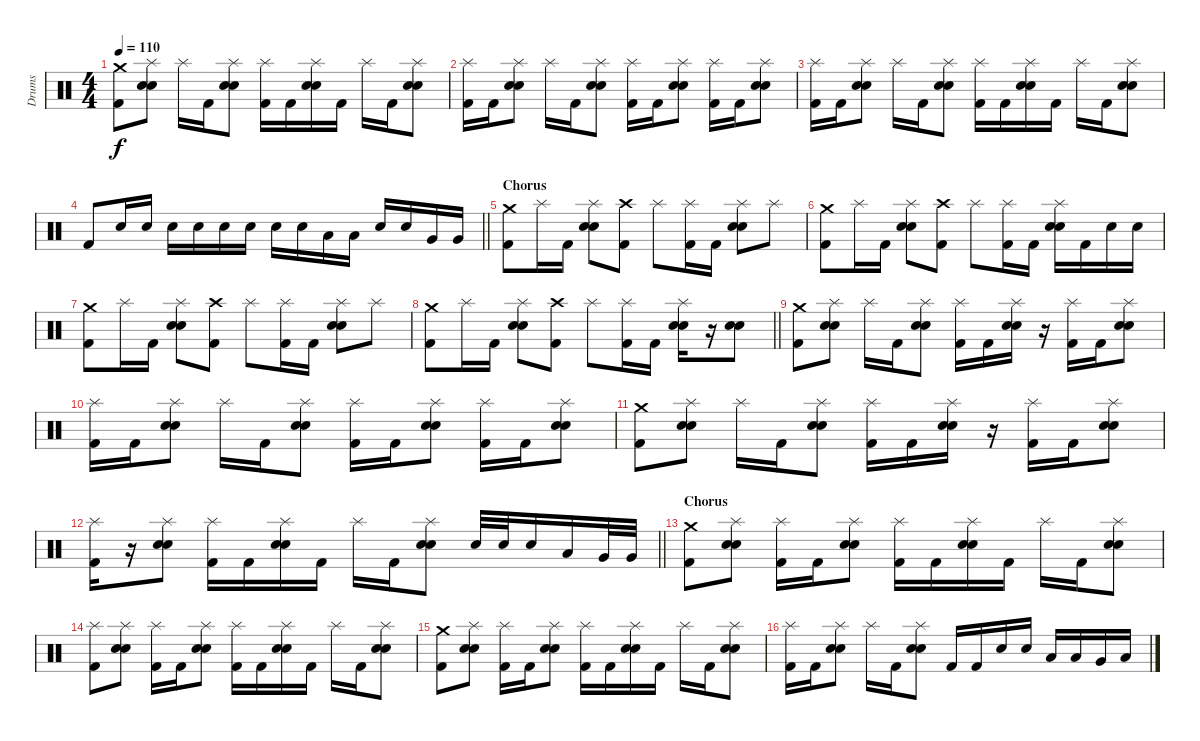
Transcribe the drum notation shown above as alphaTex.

\track ("Drums" "Drums") {instrument percussion}
\staff {score}
\articulation defaults
\ts (4 4)
\tempo 110
\clef neutral
\ks c
("Crash medium (hit)" "Kick (hit) 2").8{dy f} ("Splash (hit)" "Electric Snare (hit)" "Snare (hit) 2").8 "Splash (hit)".16 "Kick (hit) 2".16 ("Splash (hit)" "Electric Snare (hit)" "Snare (hit) 2").8 ("Splash (hit)" "Kick (hit) 2").16 "Kick (hit) 2".16 ("Splash (hit)" "Electric Snare (hit)" "Snare (hit) 2").16 "Kick (hit) 2".16 "Splash (hit)".16 "Kick (hit) 2".16 ("Splash (hit)" "Electric Snare (hit)" "Snare (hit) 2").8 |
("Splash (hit)" "Kick (hit) 2").16 "Kick (hit) 2".16 ("Splash (hit)" "Electric Snare (hit)" "Snare (hit) 2").8 "Splash (hit)".16 "Kick (hit) 2".16 ("Splash (hit)" "Electric Snare (hit)" "Snare (hit) 2").8 ("Splash (hit)" "Kick (hit) 2").16 "Kick (hit) 2".16 ("Splash (hit)" "Electric Snare (hit)" "Snare (hit) 2").8 ("Splash (hit)" "Kick (hit) 2").16 "Kick (hit) 2".16 ("Splash (hit)" "Electric Snare (hit)" "Snare (hit) 2").8 |
("Splash (hit)" "Kick (hit) 2").16 "Kick (hit) 2".16 ("Splash (hit)" "Electric Snare (hit)" "Snare (hit) 2").8 "Splash (hit)".16 "Kick (hit) 2".16 ("Splash (hit)" "Electric Snare (hit)" "Snare (hit) 2").8 ("Splash (hit)" "Kick (hit) 2").16 "Kick (hit) 2".16 ("Splash (hit)" "Electric Snare (hit)" "Snare (hit) 2").16 "Kick (hit) 2".16 "Splash (hit)".16 "Kick (hit) 2".16 ("Splash (hit)" "Electric Snare (hit)" "Snare (hit) 2").8 |
\barLineRight lightlight "Kick (hit) 2".8 "Electric Snare (hit)".16 "Electric Snare (hit)".16 "Electric Snare (hit)".16 "Electric Snare (hit)".16 "Electric Snare (hit)".16 "Electric Snare (hit)".16 "Electric Snare (hit)".16 "Electric Snare (hit)".16 "Low Tom (hit)".16 "Low Tom (hit)".16 "Electric Snare (hit)".16 "Electric Snare (hit)".16 "Very Low Tom (hit)".16 "Very Low Tom (hit)".16
|
\section ("" "Chorus")
("Crash medium (hit)" "Kick (hit) 2").8 "Splash (hit)".16 "Kick (hit) 2".16 ("Splash (hit)" "Electric Snare (hit)" "Snare (hit) 2").8 ("Crash high (hit)" "Kick (hit) 2").8 "Splash (hit)".8 ("Splash (hit)" "Kick (hit) 2").16 "Kick (hit) 2".16 ("Splash (hit)" "Electric Snare (hit)" "Snare (hit) 2").8 "Splash (hit)".8 |
("Crash medium (hit)" "Kick (hit) 2").8 "Splash (hit)".16 "Kick (hit) 2".16 ("Splash (hit)" "Electric Snare (hit)" "Snare (hit) 2").8 ("Crash high (hit)" "Kick (hit) 2").8 "Splash (hit)".8 ("Splash (hit)" "Kick (hit) 2").16 "Kick (hit) 2".16 ("Splash (hit)" "Electric Snare (hit)" "Snare (hit) 2").16 "Kick (hit) 2".16 "Electric Snare (hit)".16 "Electric Snare (hit)".16 |
("Crash medium (hit)" "Kick (hit) 2").8 "Splash (hit)".16 "Kick (hit) 2".16 ("Splash (hit)" "Electric Snare (hit)" "Snare (hit) 2").8 ("Crash high (hit)" "Kick (hit) 2").8 "Splash (hit)".8 ("Splash (hit)" "Kick (hit) 2").16 "Kick (hit) 2".16 ("Splash (hit)" "Electric Snare (hit)" "Snare (hit) 2").8 "Splash (hit)".8 |
\barLineRight lightlight
("Crash medium (hit)" "Kick (hit) 2").8 "Splash (hit)".16 "Kick (hit) 2".16 ("Splash (hit)" "Electric Snare (hit)" "Snare (hit) 2").8 ("Crash high (hit)" "Kick (hit) 2").8 "Splash (hit)".8 ("Splash (hit)" "Kick (hit) 2").16 "Kick (hit) 2".16 ("Splash (hit)" "Electric Snare (hit)" "Snare (hit) 2").16 r.16 ("Electric Snare (hit)" "Snare (hit) 2").8 |
("Crash medium (hit)" "Kick (hit) 2").8 ("Splash (hit)" "Electric Snare (hit)" "Snare (hit) 2").8 "Splash (hit)".16 "Kick (hit) 2".16 ("Splash (hit)" "Electric Snare (hit)" "Snare (hit) 2").8 ("Splash (hit)" "Kick (hit) 2").16 "Kick (hit) 2".16 ("Splash (hit)" "Electric Snare (hit)" "Snare (hit) 2").16 r.16 ("Splash (hit)" "Kick (hit) 2").16 "Kick (hit) 2".16 ("Splash (hit)" "Electric Snare (hit)" "Snare (hit) 2").8 |
("Splash (hit)" "Kick (hit) 2").16 "Kick (hit) 2".16 ("Splash (hit)" "Electric Snare (hit)" "Snare (hit) 2").8 "Splash (hit)".16 "Kick (hit) 2".16 ("Splash (hit)" "Electric Snare (hit)" "Snare (hit) 2").8 ("Splash (hit)" "Kick (hit) 2").16 "Kick (hit) 2".16 ("Splash (hit)" "Electric Snare (hit)" "Snare (hit) 2").8 ("Splash (hit)" "Kick (hit) 2").16 "Kick (hit) 2".16 ("Splash (hit)" "Electric Snare (hit)" "Snare (hit) 2").8 |
("Crash medium (hit)" "Kick (hit) 2").8 ("Splash (hit)" "Electric Snare (hit)" "Snare (hit) 2").8 "Splash (hit)".16 "Kick (hit) 2".16 ("Splash (hit)" "Electric Snare (hit)" "Snare (hit) 2").8 ("Splash (hit)" "Kick (hit) 2").16 "Kick (hit) 2".16 ("Splash (hit)" "Electric Snare (hit)" "Snare (hit) 2").16 r.16 ("Splash (hit)" "Kick (hit) 2").16 "Kick (hit) 2".16 ("Splash (hit)" "Electric Snare (hit)" "Snare (hit) 2").8 |
\barLineRight lightlight
("Splash (hit)" "Kick (hit) 2").16 r.16 ("Splash (hit)" "Electric Snare (hit)" "Snare (hit) 2").8 ("Splash (hit)" "Kick (hit) 2").16 "Kick (hit) 2".16 ("Splash (hit)" "Electric Snare (hit)" "Snare (hit) 2").16 "Kick (hit) 2".16 "Splash (hit)".16 "Kick (hit) 2".16 ("Splash (hit)" "Electric Snare (hit)" "Snare (hit) 2").8 "Electric Snare (hit)".32 "Electric Snare (hit)".32 "Electric Snare (hit)".16 "Low Tom (hit)".16 "Very Low Tom (hit)".32 "Very Low Tom (hit)".32 |
\section ("" "Chorus")
("Crash medium (hit)" "Kick (hit) 2").8 ("Splash (hit)" "Electric Snare (hit)" "Snare (hit) 2").8 ("Splash (hit)" "Kick (hit) 2").16 "Kick (hit) 2".16 ("Splash (hit)" "Electric Snare (hit)" "Snare (hit) 2").8 ("Splash (hit)" "Kick (hit) 2").16 "Kick (hit) 2".16 ("Splash (hit)" "Electric Snare (hit)" "Snare (hit) 2").16 "Kick (hit) 2".16 "Splash (hit)".16 "Kick (hit) 2".16 ("Splash (hit)" "Electric Snare (hit)" "Snare (hit) 2").8 |
("Splash (hit)" "Kick (hit) 2").8 ("Splash (hit)" "Electric Snare (hit)" "Snare (hit) 2").8 ("Splash (hit)" "Kick (hit) 2").16 "Kick (hit) 2".16 ("Splash (hit)" "Electric Snare (hit)" "Snare (hit) 2").8 ("Splash (hit)" "Kick (hit) 2").16 "Kick (hit) 2".16 ("Splash (hit)" "Electric Snare (hit)" "Snare (hit) 2").16 "Kick (hit) 2".16 "Splash (hit)".16 "Kick (hit) 2".16 ("Splash (hit)" "Electric Snare (hit)" "Snare (hit) 2").8 |
("Crash medium (hit)" "Kick (hit) 2").8 ("Splash (hit)" "Electric Snare (hit)" "Snare (hit) 2").8 ("Splash (hit)" "Kick (hit) 2").16 "Kick (hit) 2".16 ("Splash (hit)" "Electric Snare (hit)" "Snare (hit) 2").8 ("Splash (hit)" "Kick (hit) 2").16 "Kick (hit) 2".16 ("Splash (hit)" "Electric Snare (hit)" "Snare (hit) 2").16 "Kick (hit) 2".16 "Splash (hit)".16 "Kick (hit) 2".16 ("Splash (hit)" "Electric Snare (hit)" "Snare (hit) 2").8 |
("Splash (hit)" "Kick (hit) 2").16 "Kick (hit) 2".16 ("Splash (hit)" "Electric Snare (hit)" "Snare (hit) 2").8 "Splash (hit)".16 "Kick (hit) 2".16 ("Splash (hit)" "Electric Snare (hit)" "Snare (hit) 2").8 "Kick (hit) 2".16 "Kick (hit) 2".16 "Electric Snare (hit)".16 "Electric Snare (hit)".16 "Low Tom (hit)".16 "Low Tom (hit)".16 "Very Low Tom (hit)".16 "Low Floor Tom (hit)".16
